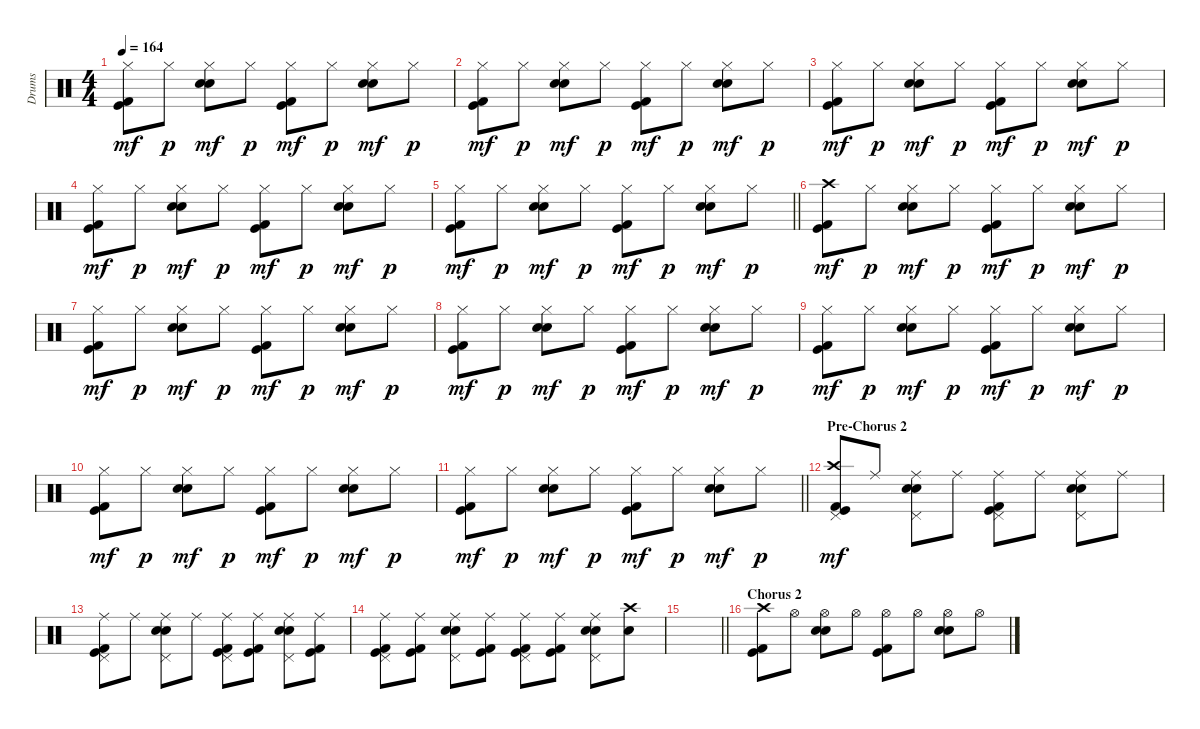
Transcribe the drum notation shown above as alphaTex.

\track ("Drums" "Drums") {instrument percussion}
\staff {score}
\articulation defaults
\ts (4 4)
\tempo 164
\clef neutral
\ks c
("Hi-Hat (closed)" "Kick (hit) 2" "Kick (hit)").8{dy mf} "Hi-Hat (closed)".8{dy p} ("Hi-Hat (closed)" "Snare (hit) 2" "Electric Snare (hit)").8{dy mf} "Hi-Hat (closed)".8{dy p} ("Hi-Hat (closed)" "Kick (hit) 2" "Kick (hit)").8{dy mf} "Hi-Hat (closed)".8{dy p} ("Hi-Hat (closed)" "Snare (hit) 2" "Electric Snare (hit)").8{dy mf} "Hi-Hat (closed)".8{dy p} |
("Hi-Hat (closed)" "Kick (hit) 2" "Kick (hit)").8{dy mf} "Hi-Hat (closed)".8{dy p} ("Hi-Hat (closed)" "Snare (hit) 2" "Electric Snare (hit)").8{dy mf} "Hi-Hat (closed)".8{dy p} ("Hi-Hat (closed)" "Kick (hit) 2" "Kick (hit)").8{dy mf} "Hi-Hat (closed)".8{dy p} ("Hi-Hat (closed)" "Snare (hit) 2" "Electric Snare (hit)").8{dy mf} "Hi-Hat (closed)".8{dy p} |
("Hi-Hat (closed)" "Kick (hit) 2" "Kick (hit)").8{dy mf} "Hi-Hat (closed)".8{dy p} ("Hi-Hat (closed)" "Snare (hit) 2" "Electric Snare (hit)").8{dy mf} "Hi-Hat (closed)".8{dy p} ("Hi-Hat (closed)" "Kick (hit) 2" "Kick (hit)").8{dy mf} "Hi-Hat (closed)".8{dy p} ("Hi-Hat (closed)" "Snare (hit) 2" "Electric Snare (hit)").8{dy mf} "Hi-Hat (closed)".8{dy p} |
("Hi-Hat (closed)" "Kick (hit) 2" "Kick (hit)").8{dy mf} "Hi-Hat (closed)".8{dy p} ("Hi-Hat (closed)" "Snare (hit) 2" "Electric Snare (hit)").8{dy mf} "Hi-Hat (closed)".8{dy p} ("Hi-Hat (closed)" "Kick (hit) 2" "Kick (hit)").8{dy mf} "Hi-Hat (closed)".8{dy p} ("Hi-Hat (closed)" "Snare (hit) 2" "Electric Snare (hit)").8{dy mf} "Hi-Hat (closed)".8{dy p} |
\barLineRight lightlight
("Hi-Hat (closed)" "Kick (hit) 2" "Kick (hit)").8{dy mf} "Hi-Hat (closed)".8{dy p} ("Hi-Hat (closed)" "Snare (hit) 2" "Electric Snare (hit)").8{dy mf} "Hi-Hat (closed)".8{dy p} ("Hi-Hat (closed)" "Kick (hit) 2" "Kick (hit)").8{dy mf} "Hi-Hat (closed)".8{dy p} ("Hi-Hat (closed)" "Snare (hit) 2" "Electric Snare (hit)").8{dy mf} "Hi-Hat (closed)".8{dy p} |
("Crash high (hit)" "Kick (hit) 2" "Kick (hit)").8{dy mf} "Hi-Hat (closed)".8{dy p} ("Hi-Hat (closed)" "Snare (hit) 2" "Electric Snare (hit)").8{dy mf} "Hi-Hat (closed)".8{dy p} ("Hi-Hat (closed)" "Kick (hit) 2" "Kick (hit)").8{dy mf} "Hi-Hat (closed)".8{dy p} ("Hi-Hat (closed)" "Snare (hit) 2" "Electric Snare (hit)").8{dy mf} "Hi-Hat (closed)".8{dy p} |
("Hi-Hat (closed)" "Kick (hit) 2" "Kick (hit)").8{dy mf} "Hi-Hat (closed)".8{dy p} ("Hi-Hat (closed)" "Snare (hit) 2" "Electric Snare (hit)").8{dy mf} "Hi-Hat (closed)".8{dy p} ("Hi-Hat (closed)" "Kick (hit) 2" "Kick (hit)").8{dy mf} "Hi-Hat (closed)".8{dy p} ("Hi-Hat (closed)" "Snare (hit) 2" "Electric Snare (hit)").8{dy mf} "Hi-Hat (closed)".8{dy p} |
("Hi-Hat (closed)" "Kick (hit) 2" "Kick (hit)").8{dy mf} "Hi-Hat (closed)".8{dy p} ("Hi-Hat (closed)" "Snare (hit) 2" "Electric Snare (hit)").8{dy mf} "Hi-Hat (closed)".8{dy p} ("Hi-Hat (closed)" "Kick (hit) 2" "Kick (hit)").8{dy mf} "Hi-Hat (closed)".8{dy p} ("Hi-Hat (closed)" "Snare (hit) 2" "Electric Snare (hit)").8{dy mf} "Hi-Hat (closed)".8{dy p} |
("Hi-Hat (closed)" "Kick (hit) 2" "Kick (hit)").8{dy mf} "Hi-Hat (closed)".8{dy p} ("Hi-Hat (closed)" "Snare (hit) 2" "Electric Snare (hit)").8{dy mf} "Hi-Hat (closed)".8{dy p} ("Hi-Hat (closed)" "Kick (hit) 2" "Kick (hit)").8{dy mf} "Hi-Hat (closed)".8{dy p} ("Hi-Hat (closed)" "Snare (hit) 2" "Electric Snare (hit)").8{dy mf} "Hi-Hat (closed)".8{dy p} |
("Hi-Hat (closed)" "Kick (hit) 2" "Kick (hit)").8{dy mf} "Hi-Hat (closed)".8{dy p} ("Hi-Hat (closed)" "Snare (hit) 2" "Electric Snare (hit)").8{dy mf} "Hi-Hat (closed)".8{dy p} ("Hi-Hat (closed)" "Kick (hit) 2" "Kick (hit)").8{dy mf} "Hi-Hat (closed)".8{dy p} ("Hi-Hat (closed)" "Snare (hit) 2" "Electric Snare (hit)").8{dy mf} "Hi-Hat (closed)".8{dy p} |
\barLineRight lightlight
("Hi-Hat (closed)" "Kick (hit) 2" "Kick (hit)").8{dy mf} "Hi-Hat (closed)".8{dy p} ("Hi-Hat (closed)" "Snare (hit) 2" "Electric Snare (hit)").8{dy mf} "Hi-Hat (closed)".8{dy p} ("Hi-Hat (closed)" "Kick (hit) 2" "Kick (hit)").8{dy mf} "Hi-Hat (closed)".8{dy p} ("Hi-Hat (closed)" "Snare (hit) 2" "Electric Snare (hit)").8{dy mf} "Hi-Hat (closed)".8{dy p} |
\section ("" "Pre-Chorus 2")
("Crash high (hit)" "Pedal Hi-Hat (hit)" "Kick (hit) 2" "Kick (hit)").8{dy mf} "Ride (middle)".8 ("Ride (middle)" "Pedal Hi-Hat (hit)" "Snare (hit) 2" "Electric Snare (hit)").8 "Ride (middle)".8 ("Ride (middle)" "Pedal Hi-Hat (hit)" "Kick (hit) 2" "Kick (hit)").8 "Ride (middle)".8 ("Ride (middle)" "Pedal Hi-Hat (hit)" "Snare (hit) 2" "Electric Snare (hit)").8 "Ride (middle)".8 |
("Ride (middle)" "Pedal Hi-Hat (hit)" "Kick (hit) 2" "Kick (hit)").8 "Ride (middle)".8 ("Ride (middle)" "Pedal Hi-Hat (hit)" "Snare (hit) 2" "Electric Snare (hit)").8 "Ride (middle)".8 ("Ride (middle)" "Pedal Hi-Hat (hit)" "Kick (hit) 2" "Kick (hit)").8 ("Ride (middle)" "Kick (hit) 2" "Kick (hit)").8 ("Ride (middle)" "Pedal Hi-Hat (hit)" "Snare (hit) 2" "Electric Snare (hit)").8 ("Ride (middle)" "Kick (hit) 2" "Kick (hit)").8 |
("Ride (middle)" "Pedal Hi-Hat (hit)" "Kick (hit) 2" "Kick (hit)").8 ("Ride (middle)" "Kick (hit) 2" "Kick (hit)").8 ("Ride (middle)" "Pedal Hi-Hat (hit)" "Snare (hit) 2" "Electric Snare (hit)").8 ("Ride (middle)" "Kick (hit) 2" "Kick (hit)").8 ("Ride (middle)" "Pedal Hi-Hat (hit)" "Kick (hit) 2" "Kick (hit)").8 ("Ride (middle)" "Kick (hit) 2" "Kick (hit)").8 ("Ride (middle)" "Pedal Hi-Hat (hit)" "Snare (hit) 2" "Electric Snare (hit)").8 ("Crash high (hit)" "Electric Snare (hit)").8 |
\barLineRight lightlight
|
\section ("" "Chorus 2")
("Crash high (hit)" "Kick (hit) 2" "Kick (hit)").8 "Hi-Hat (open)".8 ("Hi-Hat (open)" "Snare (hit) 2" "Electric Snare (hit)").8 "Hi-Hat (open)".8 ("Hi-Hat (open)" "Kick (hit) 2" "Kick (hit)").8 "Hi-Hat (open)".8 ("Hi-Hat (open)" "Snare (hit) 2" "Electric Snare (hit)").8 "Hi-Hat (open)".8
